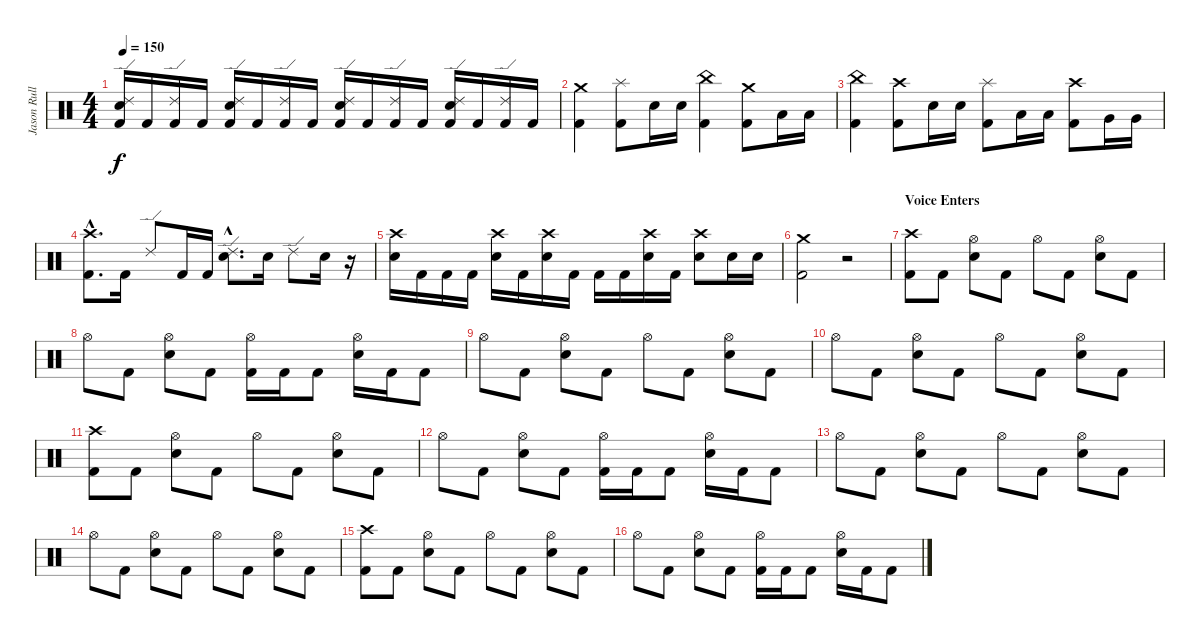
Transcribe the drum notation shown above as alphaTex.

\track ("Jason Rullo" "Jason Rull") {instrument percussion}
\staff {score}
\articulation defaults
\ts (4 4)
\tempo 150
\clef neutral
\ks c
("Ride (edge) 2" "Electric Snare (hit)" "Kick (hit) 2").16{dy f} "Kick (hit) 2".16 ("Ride (edge) 2" "Kick (hit) 2").16 "Kick (hit) 2".16 ("Ride (edge) 2" "Electric Snare (hit)" "Kick (hit) 2").16 "Kick (hit) 2".16 ("Ride (edge) 2" "Kick (hit) 2").16 "Kick (hit) 2".16 ("Ride (edge) 2" "Electric Snare (hit)" "Kick (hit) 2").16 "Kick (hit) 2".16 ("Ride (edge) 2" "Kick (hit) 2").16 "Kick (hit) 2".16 ("Ride (edge) 2" "Electric Snare (hit)" "Kick (hit) 2").16 "Kick (hit) 2".16 ("Ride (edge) 2" "Kick (hit) 2").16 "Kick (hit) 2".16 |
("Crash medium (hit)" "Kick (hit) 2").4 ("Splash (hit)" "Kick (hit) 2").8 "Electric Snare (hit)".16 "Electric Snare (hit)".16 ("China (hit)" "Kick (hit) 2").4 ("Crash medium (hit)" "Kick (hit) 2").8 "Low Tom (hit)".16 "Low Tom (hit)".16 |
("China (hit)" "Kick (hit) 2").4 ("Crash high (hit)" "Kick (hit) 2").8 "Electric Snare (hit)".16 "Electric Snare (hit)".16 ("Splash (hit)" "Kick (hit) 2").8 "Low Tom (hit)".16 "Low Tom (hit)".16 ("Crash high (hit)" "Kick (hit) 2").8 "Very Low Tom (hit)".16 "Very Low Tom (hit)".16 |
("Crash high (hit)" "Kick (hit) 2"{hac}).8{d} "Kick (hit) 2".16 "Ride (edge) 2".8 "Kick (hit) 2".16 "Kick (hit) 2".16 ("Ride (edge) 2" "Electric Snare (hit)"{hac}).8{d} "Electric Snare (hit)".16 "Ride (edge) 2".8 "Electric Snare (hit)".16 r.16 |
("Crash high (hit)" "Electric Snare (hit)").16 "Kick (hit) 2".16 "Kick (hit) 2".16 "Kick (hit) 2".16 ("Crash high (hit)" "Electric Snare (hit)").16 "Kick (hit) 2".16 ("Crash high (hit)" "Electric Snare (hit)").16 "Kick (hit) 2".16 "Kick (hit) 2".16 "Kick (hit) 2".16 ("Crash high (hit)" "Electric Snare (hit)").16 "Kick (hit) 2".16 ("Crash high (hit)" "Electric Snare (hit)").8 "Electric Snare (hit)".16 "Electric Snare (hit)".16 |
("Crash medium (hit)" "Kick (hit) 2").2 r.2 |
\section ("" "Voice Enters")
("Crash high (hit)" "Kick (hit) 2").8 "Kick (hit) 2".8 ("Hi-Hat (open)" "Electric Snare (hit)").8 "Kick (hit) 2".8 "Hi-Hat (open)".8 "Kick (hit) 2".8 ("Hi-Hat (open)" "Electric Snare (hit)").8 "Kick (hit) 2".8 |
"Hi-Hat (open)".8 "Kick (hit) 2".8 ("Hi-Hat (open)" "Electric Snare (hit)").8 "Kick (hit) 2".8 ("Hi-Hat (open)" "Kick (hit) 2").16 "Kick (hit) 2".16 "Kick (hit) 2".8 ("Hi-Hat (open)" "Electric Snare (hit)").16 "Kick (hit) 2".16 "Kick (hit) 2".8 |
"Hi-Hat (open)".8 "Kick (hit) 2".8 ("Hi-Hat (open)" "Electric Snare (hit)").8 "Kick (hit) 2".8 "Hi-Hat (open)".8 "Kick (hit) 2".8 ("Hi-Hat (open)" "Electric Snare (hit)").8 "Kick (hit) 2".8 |
"Hi-Hat (open)".8 "Kick (hit) 2".8 ("Hi-Hat (open)" "Electric Snare (hit)").8 "Kick (hit) 2".8 "Hi-Hat (open)".8 "Kick (hit) 2".8 ("Hi-Hat (open)" "Electric Snare (hit)").8 "Kick (hit) 2".8 |
("Crash high (hit)" "Kick (hit) 2").8 "Kick (hit) 2".8 ("Hi-Hat (open)" "Electric Snare (hit)").8 "Kick (hit) 2".8 "Hi-Hat (open)".8 "Kick (hit) 2".8 ("Hi-Hat (open)" "Electric Snare (hit)").8 "Kick (hit) 2".8 |
"Hi-Hat (open)".8 "Kick (hit) 2".8 ("Hi-Hat (open)" "Electric Snare (hit)").8 "Kick (hit) 2".8 ("Hi-Hat (open)" "Kick (hit) 2").16 "Kick (hit) 2".16 "Kick (hit) 2".8 ("Hi-Hat (open)" "Electric Snare (hit)").16 "Kick (hit) 2".16 "Kick (hit) 2".8 |
"Hi-Hat (open)".8 "Kick (hit) 2".8 ("Hi-Hat (open)" "Electric Snare (hit)").8 "Kick (hit) 2".8 "Hi-Hat (open)".8 "Kick (hit) 2".8 ("Hi-Hat (open)" "Electric Snare (hit)").8 "Kick (hit) 2".8 |
"Hi-Hat (open)".8 "Kick (hit) 2".8 ("Hi-Hat (open)" "Electric Snare (hit)").8 "Kick (hit) 2".8 "Hi-Hat (open)".8 "Kick (hit) 2".8 ("Hi-Hat (open)" "Electric Snare (hit)").8 "Kick (hit) 2".8 |
("Crash high (hit)" "Kick (hit) 2").8 "Kick (hit) 2".8 ("Hi-Hat (open)" "Electric Snare (hit)").8 "Kick (hit) 2".8 "Hi-Hat (open)".8 "Kick (hit) 2".8 ("Hi-Hat (open)" "Electric Snare (hit)").8 "Kick (hit) 2".8 |
"Hi-Hat (open)".8 "Kick (hit) 2".8 ("Hi-Hat (open)" "Electric Snare (hit)").8 "Kick (hit) 2".8 ("Hi-Hat (open)" "Kick (hit) 2").16 "Kick (hit) 2".16 "Kick (hit) 2".8 ("Hi-Hat (open)" "Electric Snare (hit)").16 "Kick (hit) 2".16 "Kick (hit) 2".8
